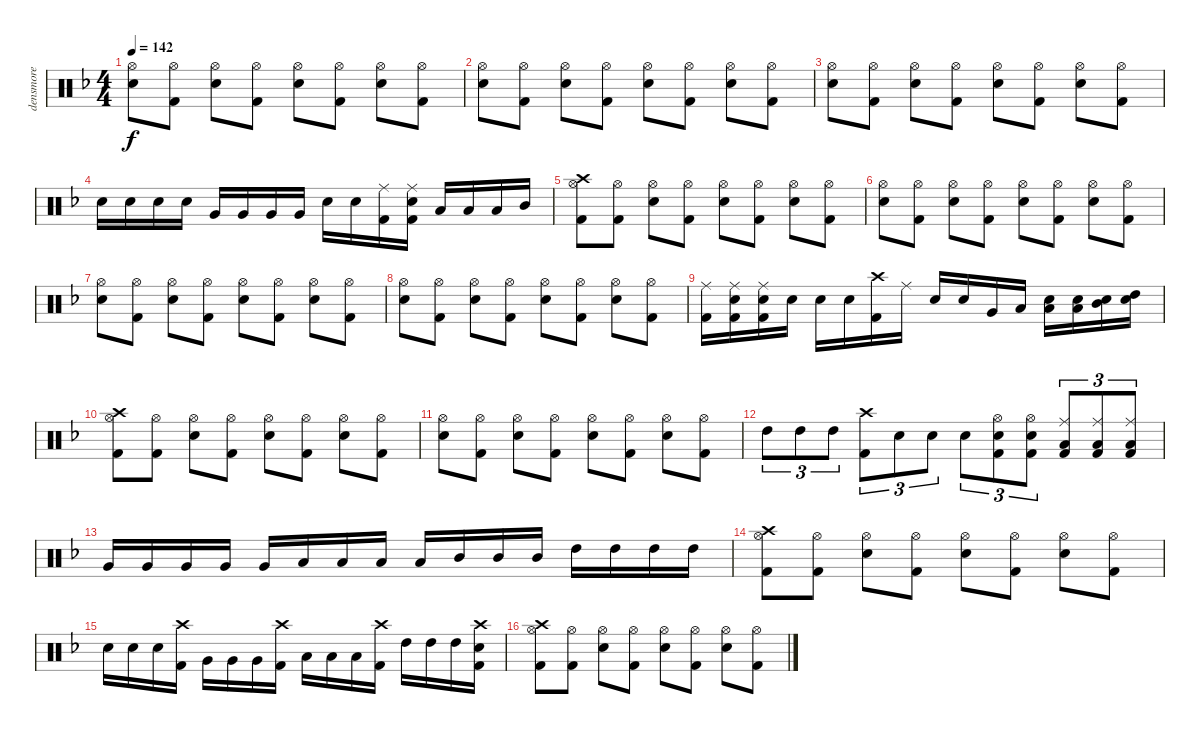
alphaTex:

\track ("densmore" "densmore") {instrument percussion}
\staff {score}
\articulation defaults
\ts (4 4)
\tempo 142
\clef neutral
\ks f
("Hi-Hat (open)" "Electric Snare (hit)").8{dy f} ("Hi-Hat (open)" "Kick (hit) 2").8 ("Hi-Hat (open)" "Electric Snare (hit)").8 ("Hi-Hat (open)" "Kick (hit) 2").8 ("Hi-Hat (open)" "Electric Snare (hit)").8 ("Hi-Hat (open)" "Kick (hit) 2").8 ("Hi-Hat (open)" "Electric Snare (hit)").8 ("Hi-Hat (open)" "Kick (hit) 2").8 |
("Hi-Hat (open)" "Electric Snare (hit)").8 ("Hi-Hat (open)" "Kick (hit) 2").8 ("Hi-Hat (open)" "Electric Snare (hit)").8 ("Hi-Hat (open)" "Kick (hit) 2").8 ("Hi-Hat (open)" "Electric Snare (hit)").8 ("Hi-Hat (open)" "Kick (hit) 2").8 ("Hi-Hat (open)" "Electric Snare (hit)").8 ("Hi-Hat (open)" "Kick (hit) 2").8 |
("Hi-Hat (open)" "Electric Snare (hit)").8 ("Hi-Hat (open)" "Kick (hit) 2").8 ("Hi-Hat (open)" "Electric Snare (hit)").8 ("Hi-Hat (open)" "Kick (hit) 2").8 ("Hi-Hat (open)" "Electric Snare (hit)").8 ("Hi-Hat (open)" "Kick (hit) 2").8 ("Hi-Hat (open)" "Electric Snare (hit)").8 ("Hi-Hat (open)" "Kick (hit) 2").8 |
"Electric Snare (hit)".16 "Electric Snare (hit)".16 "Electric Snare (hit)".16 "Electric Snare (hit)".16 "Very Low Tom (hit)".16 "Very Low Tom (hit)".16 "Very Low Tom (hit)".16 "Very Low Tom (hit)".16 "Electric Snare (hit)".16 "Electric Snare (hit)".16 ("Ride (middle)" "Kick (hit) 2").16 ("Kick (hit) 2" "Ride (middle)" "Electric Snare (hit)").16 "Low Tom (hit)".16 "Low Tom (hit)".16 "Low Tom (hit)".16 "Mid Tom (hit)".16 |
("Hi-Hat (open)" "Crash high (hit)" "Kick (hit) 2").8 ("Hi-Hat (open)" "Kick (hit) 2").8 ("Hi-Hat (open)" "Electric Snare (hit)").8 ("Hi-Hat (open)" "Kick (hit) 2").8 ("Hi-Hat (open)" "Electric Snare (hit)").8 ("Hi-Hat (open)" "Kick (hit) 2").8 ("Hi-Hat (open)" "Electric Snare (hit)").8 ("Hi-Hat (open)" "Kick (hit) 2").8 |
("Hi-Hat (open)" "Electric Snare (hit)").8 ("Hi-Hat (open)" "Kick (hit) 2").8 ("Hi-Hat (open)" "Electric Snare (hit)").8 ("Hi-Hat (open)" "Kick (hit) 2").8 ("Hi-Hat (open)" "Electric Snare (hit)").8 ("Hi-Hat (open)" "Kick (hit) 2").8 ("Hi-Hat (open)" "Electric Snare (hit)").8 ("Hi-Hat (open)" "Kick (hit) 2").8 |
("Hi-Hat (open)" "Electric Snare (hit)").8 ("Hi-Hat (open)" "Kick (hit) 2").8 ("Hi-Hat (open)" "Electric Snare (hit)").8 ("Hi-Hat (open)" "Kick (hit) 2").8 ("Hi-Hat (open)" "Electric Snare (hit)").8 ("Hi-Hat (open)" "Kick (hit) 2").8 ("Hi-Hat (open)" "Electric Snare (hit)").8 ("Hi-Hat (open)" "Kick (hit) 2").8 |
("Hi-Hat (open)" "Electric Snare (hit)").8 ("Hi-Hat (open)" "Kick (hit) 2").8 ("Hi-Hat (open)" "Electric Snare (hit)").8 ("Hi-Hat (open)" "Kick (hit) 2").8 ("Hi-Hat (open)" "Electric Snare (hit)").8 ("Hi-Hat (open)" "Kick (hit) 2").8 ("Hi-Hat (open)" "Electric Snare (hit)").8 ("Hi-Hat (open)" "Kick (hit) 2").8 |
("Kick (hit) 2" "Ride (middle)").16 ("Electric Snare (hit)" "Ride (middle)" "Kick (hit) 2").16 ("Electric Snare (hit)" "Ride (middle)" "Kick (hit) 2").16 "Electric Snare (hit)".16 "Electric Snare (hit)".16 "Electric Snare (hit)".16 ("Crash high (hit)" "Kick (hit) 2").16 "Ride (middle)".16 "Electric Snare (hit)".16 "Electric Snare (hit)".16 "Very Low Tom (hit)".16 "Low Tom (hit)".16 ("Low Tom (hit)" "Electric Snare (hit)").16 ("Low Tom (hit)" "Electric Snare (hit)").16 ("Mid Tom (hit)" "Electric Snare (hit)").16 ("High Tom (hit)" "Electric Snare (hit)").16 |
("Hi-Hat (open)" "Crash high (hit)" "Kick (hit) 2").8 ("Hi-Hat (open)" "Kick (hit) 2").8 ("Hi-Hat (open)" "Electric Snare (hit)").8 ("Hi-Hat (open)" "Kick (hit) 2").8 ("Hi-Hat (open)" "Electric Snare (hit)").8 ("Hi-Hat (open)" "Kick (hit) 2").8 ("Hi-Hat (open)" "Electric Snare (hit)").8 ("Hi-Hat (open)" "Kick (hit) 2").8 |
("Hi-Hat (open)" "Electric Snare (hit)").8 ("Hi-Hat (open)" "Kick (hit) 2").8 ("Hi-Hat (open)" "Electric Snare (hit)").8 ("Hi-Hat (open)" "Kick (hit) 2").8 ("Hi-Hat (open)" "Electric Snare (hit)").8 ("Hi-Hat (open)" "Kick (hit) 2").8 ("Hi-Hat (open)" "Electric Snare (hit)").8 ("Hi-Hat (open)" "Kick (hit) 2").8 |
"High Tom (hit)".8{tu (3 2)} "High Tom (hit)".8{tu (3 2)} "High Tom (hit)".8{tu (3 2)} ("Crash high (hit)" "Kick (hit) 2").8{tu (3 2)} "Electric Snare (hit)".8{tu (3 2)} "Electric Snare (hit)".8{tu (3 2)} "Electric Snare (hit)".8{tu (3 2)} ("Hi-Hat (open)" "Electric Snare (hit)" "Kick (hit) 2").8{tu (3 2)} ("Electric Snare (hit)" "Hi-Hat (open)" "Kick (hit) 2").8{tu (3 2)} ("Ride (middle)" "Low Tom (hit)" "Kick (hit) 2").8{tu (3 2)} ("Ride (middle)" "Low Tom (hit)" "Kick (hit) 2").8{tu (3 2)} ("Ride (middle)" "Low Tom (hit)" "Kick (hit) 2").8{tu (3 2)} |
"Very Low Tom (hit)".16 "Very Low Tom (hit)".16 "Very Low Tom (hit)".16 "Very Low Tom (hit)".16 "Very Low Tom (hit)".16 "Low Tom (hit)".16 "Low Tom (hit)".16 "Low Tom (hit)".16 "Low Tom (hit)".16 "Mid Tom (hit)".16 "Mid Tom (hit)".16 "Mid Tom (hit)".16 "High Tom (hit)".16 "High Tom (hit)".16 "High Tom (hit)".16 "High Tom (hit)".16 |
("Hi-Hat (open)" "Crash high (hit)" "Kick (hit) 2").8 ("Hi-Hat (open)" "Kick (hit) 2").8 ("Hi-Hat (open)" "Electric Snare (hit)").8 ("Hi-Hat (open)" "Kick (hit) 2").8 ("Hi-Hat (open)" "Electric Snare (hit)").8 ("Hi-Hat (open)" "Kick (hit) 2").8 ("Hi-Hat (open)" "Electric Snare (hit)").8 ("Hi-Hat (open)" "Kick (hit) 2").8 |
"Electric Snare (hit)".16 "Electric Snare (hit)".16 "Electric Snare (hit)".16 ("Kick (hit) 2" "Crash high (hit)").16 "Very Low Tom (hit)".16 "Very Low Tom (hit)".16 "Very Low Tom (hit)".16 ("Crash high (hit)" "Kick (hit) 2").16 "Low Tom (hit)".16 "Low Tom (hit)".16 "Low Tom (hit)".16 ("Crash high (hit)" "Kick (hit) 2").16 "High Tom (hit)".16 "High Tom (hit)".16 "High Tom (hit)".16 ("Crash high (hit)" "Electric Snare (hit)" "Kick (hit) 2").16 |
("Hi-Hat (open)" "Kick (hit) 2" "Crash high (hit)").8 ("Hi-Hat (open)" "Kick (hit) 2").8 ("Hi-Hat (open)" "Electric Snare (hit)").8 ("Hi-Hat (open)" "Kick (hit) 2").8 ("Hi-Hat (open)" "Electric Snare (hit)").8 ("Hi-Hat (open)" "Kick (hit) 2").8 ("Hi-Hat (open)" "Electric Snare (hit)").8 ("Hi-Hat (open)" "Kick (hit) 2").8
